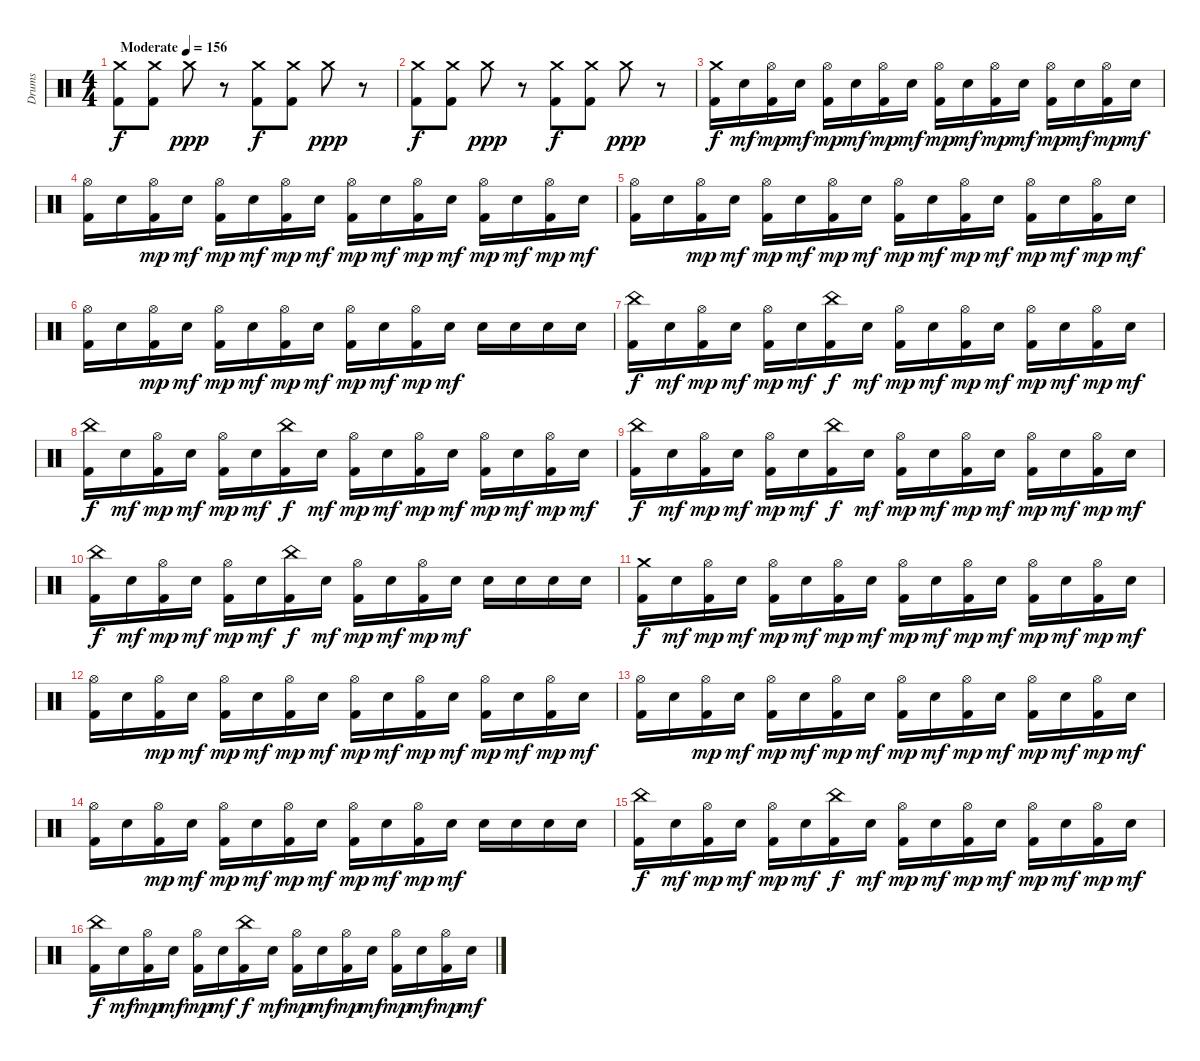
\track ("Drums" "Drums") {instrument percussion}
\staff
\articulation defaults
\ts (4 4)
\tempo (156 "Moderate")
\clef neutral
\ks c
("Crash medium (hit)" "Kick (hit) 2").8{dy f} ("Crash medium (hit)" "Kick (hit) 2").8 "Crash medium (hit)".8{dy ppp} r.8 ("Crash medium (hit)" "Kick (hit) 2").8{dy f} ("Crash medium (hit)" "Kick (hit) 2").8 "Crash medium (hit)".8{dy ppp} r.8 |
("Crash medium (hit)" "Kick (hit) 2").8{dy f} ("Crash medium (hit)" "Kick (hit) 2").8 "Crash medium (hit)".8{dy ppp} r.8 ("Crash medium (hit)" "Kick (hit) 2").8{dy f} ("Crash medium (hit)" "Kick (hit) 2").8 "Crash medium (hit)".8{dy ppp} r.8 |
("Crash medium (hit)" "Kick (hit) 2").16{dy f} "Electric Snare (hit)".16{dy mf} ("Hi-Hat (open)" "Kick (hit) 2").16{dy mp} "Electric Snare (hit)".16{dy mf} ("Hi-Hat (open)" "Kick (hit) 2").16{dy mp} "Electric Snare (hit)".16{dy mf} ("Hi-Hat (open)" "Kick (hit) 2").16{dy mp} "Electric Snare (hit)".16{dy mf} ("Hi-Hat (open)" "Kick (hit) 2").16{dy mp} "Electric Snare (hit)".16{dy mf} ("Hi-Hat (open)" "Kick (hit) 2").16{dy mp} "Electric Snare (hit)".16{dy mf} ("Hi-Hat (open)" "Kick (hit) 2").16{dy mp} "Electric Snare (hit)".16{dy mf} ("Hi-Hat (open)" "Kick (hit) 2").16{dy mp} "Electric Snare (hit)".16{dy mf} |
("Hi-Hat (open)" "Kick (hit) 2").16 "Electric Snare (hit)".16 ("Hi-Hat (open)" "Kick (hit) 2").16{dy mp} "Electric Snare (hit)".16{dy mf} ("Hi-Hat (open)" "Kick (hit) 2").16{dy mp} "Electric Snare (hit)".16{dy mf} ("Hi-Hat (open)" "Kick (hit) 2").16{dy mp} "Electric Snare (hit)".16{dy mf} ("Hi-Hat (open)" "Kick (hit) 2").16{dy mp} "Electric Snare (hit)".16{dy mf} ("Hi-Hat (open)" "Kick (hit) 2").16{dy mp} "Electric Snare (hit)".16{dy mf} ("Hi-Hat (open)" "Kick (hit) 2").16{dy mp} "Electric Snare (hit)".16{dy mf} ("Hi-Hat (open)" "Kick (hit) 2").16{dy mp} "Electric Snare (hit)".16{dy mf} |
("Hi-Hat (open)" "Kick (hit) 2").16 "Electric Snare (hit)".16 ("Hi-Hat (open)" "Kick (hit) 2").16{dy mp} "Electric Snare (hit)".16{dy mf} ("Hi-Hat (open)" "Kick (hit) 2").16{dy mp} "Electric Snare (hit)".16{dy mf} ("Hi-Hat (open)" "Kick (hit) 2").16{dy mp} "Electric Snare (hit)".16{dy mf} ("Hi-Hat (open)" "Kick (hit) 2").16{dy mp} "Electric Snare (hit)".16{dy mf} ("Hi-Hat (open)" "Kick (hit) 2").16{dy mp} "Electric Snare (hit)".16{dy mf} ("Hi-Hat (open)" "Kick (hit) 2").16{dy mp} "Electric Snare (hit)".16{dy mf} ("Hi-Hat (open)" "Kick (hit) 2").16{dy mp} "Electric Snare (hit)".16{dy mf} |
("Hi-Hat (open)" "Kick (hit) 2").16 "Electric Snare (hit)".16 ("Hi-Hat (open)" "Kick (hit) 2").16{dy mp} "Electric Snare (hit)".16{dy mf} ("Hi-Hat (open)" "Kick (hit) 2").16{dy mp} "Electric Snare (hit)".16{dy mf} ("Hi-Hat (open)" "Kick (hit) 2").16{dy mp} "Electric Snare (hit)".16{dy mf} ("Hi-Hat (open)" "Kick (hit) 2").16{dy mp} "Electric Snare (hit)".16{dy mf} ("Hi-Hat (open)" "Kick (hit) 2").16{dy mp} "Electric Snare (hit)".16{dy mf} "Electric Snare (hit)".16 "Electric Snare (hit)".16 "Electric Snare (hit)".16 "Electric Snare (hit)".16 |
("China (hit)" "Kick (hit) 2").16{dy f} "Electric Snare (hit)".16{dy mf} ("Hi-Hat (open)" "Kick (hit) 2").16{dy mp} "Electric Snare (hit)".16{dy mf} ("Hi-Hat (open)" "Kick (hit) 2").16{dy mp} "Electric Snare (hit)".16{dy mf} ("China (hit)" "Kick (hit) 2").16{dy f} "Electric Snare (hit)".16{dy mf} ("Hi-Hat (open)" "Kick (hit) 2").16{dy mp} "Electric Snare (hit)".16{dy mf} ("Hi-Hat (open)" "Kick (hit) 2").16{dy mp} "Electric Snare (hit)".16{dy mf} ("Hi-Hat (open)" "Kick (hit) 2").16{dy mp} "Electric Snare (hit)".16{dy mf} ("Hi-Hat (open)" "Kick (hit) 2").16{dy mp} "Electric Snare (hit)".16{dy mf} |
("China (hit)" "Kick (hit) 2").16{dy f} "Electric Snare (hit)".16{dy mf} ("Hi-Hat (open)" "Kick (hit) 2").16{dy mp} "Electric Snare (hit)".16{dy mf} ("Hi-Hat (open)" "Kick (hit) 2").16{dy mp} "Electric Snare (hit)".16{dy mf} ("China (hit)" "Kick (hit) 2").16{dy f} "Electric Snare (hit)".16{dy mf} ("Hi-Hat (open)" "Kick (hit) 2").16{dy mp} "Electric Snare (hit)".16{dy mf} ("Hi-Hat (open)" "Kick (hit) 2").16{dy mp} "Electric Snare (hit)".16{dy mf} ("Hi-Hat (open)" "Kick (hit) 2").16{dy mp} "Electric Snare (hit)".16{dy mf} ("Hi-Hat (open)" "Kick (hit) 2").16{dy mp} "Electric Snare (hit)".16{dy mf} |
("China (hit)" "Kick (hit) 2").16{dy f} "Electric Snare (hit)".16{dy mf} ("Hi-Hat (open)" "Kick (hit) 2").16{dy mp} "Electric Snare (hit)".16{dy mf} ("Hi-Hat (open)" "Kick (hit) 2").16{dy mp} "Electric Snare (hit)".16{dy mf} ("China (hit)" "Kick (hit) 2").16{dy f} "Electric Snare (hit)".16{dy mf} ("Hi-Hat (open)" "Kick (hit) 2").16{dy mp} "Electric Snare (hit)".16{dy mf} ("Hi-Hat (open)" "Kick (hit) 2").16{dy mp} "Electric Snare (hit)".16{dy mf} ("Hi-Hat (open)" "Kick (hit) 2").16{dy mp} "Electric Snare (hit)".16{dy mf} ("Hi-Hat (open)" "Kick (hit) 2").16{dy mp} "Electric Snare (hit)".16{dy mf} |
("China (hit)" "Kick (hit) 2").16{dy f} "Electric Snare (hit)".16{dy mf} ("Hi-Hat (open)" "Kick (hit) 2").16{dy mp} "Electric Snare (hit)".16{dy mf} ("Hi-Hat (open)" "Kick (hit) 2").16{dy mp} "Electric Snare (hit)".16{dy mf} ("China (hit)" "Kick (hit) 2").16{dy f} "Electric Snare (hit)".16{dy mf} ("Hi-Hat (open)" "Kick (hit) 2").16{dy mp} "Electric Snare (hit)".16{dy mf} ("Hi-Hat (open)" "Kick (hit) 2").16{dy mp} "Electric Snare (hit)".16{dy mf} "Electric Snare (hit)".16 "Electric Snare (hit)".16 "Electric Snare (hit)".16 "Electric Snare (hit)".16 |
("Crash medium (hit)" "Kick (hit) 2").16{dy f} "Electric Snare (hit)".16{dy mf} ("Hi-Hat (open)" "Kick (hit) 2").16{dy mp} "Electric Snare (hit)".16{dy mf} ("Hi-Hat (open)" "Kick (hit) 2").16{dy mp} "Electric Snare (hit)".16{dy mf} ("Hi-Hat (open)" "Kick (hit) 2").16{dy mp} "Electric Snare (hit)".16{dy mf} ("Hi-Hat (open)" "Kick (hit) 2").16{dy mp} "Electric Snare (hit)".16{dy mf} ("Hi-Hat (open)" "Kick (hit) 2").16{dy mp} "Electric Snare (hit)".16{dy mf} ("Hi-Hat (open)" "Kick (hit) 2").16{dy mp} "Electric Snare (hit)".16{dy mf} ("Hi-Hat (open)" "Kick (hit) 2").16{dy mp} "Electric Snare (hit)".16{dy mf} |
("Hi-Hat (open)" "Kick (hit) 2").16 "Electric Snare (hit)".16 ("Hi-Hat (open)" "Kick (hit) 2").16{dy mp} "Electric Snare (hit)".16{dy mf} ("Hi-Hat (open)" "Kick (hit) 2").16{dy mp} "Electric Snare (hit)".16{dy mf} ("Hi-Hat (open)" "Kick (hit) 2").16{dy mp} "Electric Snare (hit)".16{dy mf} ("Hi-Hat (open)" "Kick (hit) 2").16{dy mp} "Electric Snare (hit)".16{dy mf} ("Hi-Hat (open)" "Kick (hit) 2").16{dy mp} "Electric Snare (hit)".16{dy mf} ("Hi-Hat (open)" "Kick (hit) 2").16{dy mp} "Electric Snare (hit)".16{dy mf} ("Hi-Hat (open)" "Kick (hit) 2").16{dy mp} "Electric Snare (hit)".16{dy mf} |
("Hi-Hat (open)" "Kick (hit) 2").16 "Electric Snare (hit)".16 ("Hi-Hat (open)" "Kick (hit) 2").16{dy mp} "Electric Snare (hit)".16{dy mf} ("Hi-Hat (open)" "Kick (hit) 2").16{dy mp} "Electric Snare (hit)".16{dy mf} ("Hi-Hat (open)" "Kick (hit) 2").16{dy mp} "Electric Snare (hit)".16{dy mf} ("Hi-Hat (open)" "Kick (hit) 2").16{dy mp} "Electric Snare (hit)".16{dy mf} ("Hi-Hat (open)" "Kick (hit) 2").16{dy mp} "Electric Snare (hit)".16{dy mf} ("Hi-Hat (open)" "Kick (hit) 2").16{dy mp} "Electric Snare (hit)".16{dy mf} ("Hi-Hat (open)" "Kick (hit) 2").16{dy mp} "Electric Snare (hit)".16{dy mf} |
("Hi-Hat (open)" "Kick (hit) 2").16 "Electric Snare (hit)".16 ("Hi-Hat (open)" "Kick (hit) 2").16{dy mp} "Electric Snare (hit)".16{dy mf} ("Hi-Hat (open)" "Kick (hit) 2").16{dy mp} "Electric Snare (hit)".16{dy mf} ("Hi-Hat (open)" "Kick (hit) 2").16{dy mp} "Electric Snare (hit)".16{dy mf} ("Hi-Hat (open)" "Kick (hit) 2").16{dy mp} "Electric Snare (hit)".16{dy mf} ("Hi-Hat (open)" "Kick (hit) 2").16{dy mp} "Electric Snare (hit)".16{dy mf} "Electric Snare (hit)".16 "Electric Snare (hit)".16 "Electric Snare (hit)".16 "Electric Snare (hit)".16 |
("China (hit)" "Kick (hit) 2").16{dy f} "Electric Snare (hit)".16{dy mf} ("Hi-Hat (open)" "Kick (hit) 2").16{dy mp} "Electric Snare (hit)".16{dy mf} ("Hi-Hat (open)" "Kick (hit) 2").16{dy mp} "Electric Snare (hit)".16{dy mf} ("China (hit)" "Kick (hit) 2").16{dy f} "Electric Snare (hit)".16{dy mf} ("Hi-Hat (open)" "Kick (hit) 2").16{dy mp} "Electric Snare (hit)".16{dy mf} ("Hi-Hat (open)" "Kick (hit) 2").16{dy mp} "Electric Snare (hit)".16{dy mf} ("Hi-Hat (open)" "Kick (hit) 2").16{dy mp} "Electric Snare (hit)".16{dy mf} ("Hi-Hat (open)" "Kick (hit) 2").16{dy mp} "Electric Snare (hit)".16{dy mf} |
("China (hit)" "Kick (hit) 2").16{dy f} "Electric Snare (hit)".16{dy mf} ("Hi-Hat (open)" "Kick (hit) 2").16{dy mp} "Electric Snare (hit)".16{dy mf} ("Hi-Hat (open)" "Kick (hit) 2").16{dy mp} "Electric Snare (hit)".16{dy mf} ("China (hit)" "Kick (hit) 2").16{dy f} "Electric Snare (hit)".16{dy mf} ("Hi-Hat (open)" "Kick (hit) 2").16{dy mp} "Electric Snare (hit)".16{dy mf} ("Hi-Hat (open)" "Kick (hit) 2").16{dy mp} "Electric Snare (hit)".16{dy mf} ("Hi-Hat (open)" "Kick (hit) 2").16{dy mp} "Electric Snare (hit)".16{dy mf} ("Hi-Hat (open)" "Kick (hit) 2").16{dy mp} "Electric Snare (hit)".16{dy mf}
